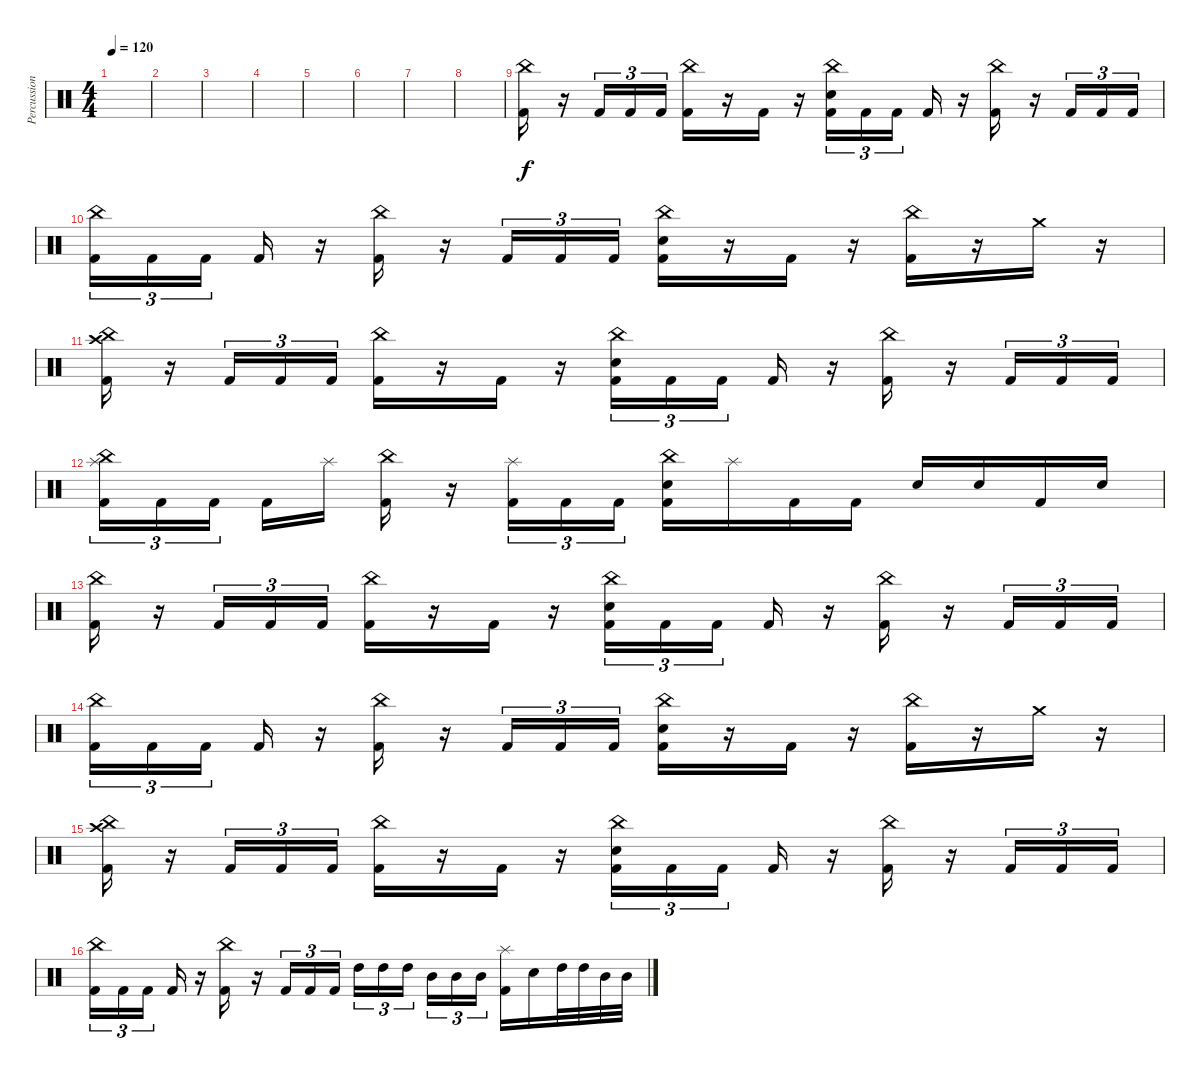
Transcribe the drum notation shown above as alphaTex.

\track ("Percussion" "Percussion") {instrument percussion}
\staff {score}
\articulation defaults
\ts (4 4)
\tempo 120
\clef neutral
\ks c
|
|
|
|
|
|
|
|
("China (hit)" "Kick (hit) 2").16 r.16 "Kick (hit) 2".16{tu (3 2)} "Kick (hit) 2".16{tu (3 2)} "Kick (hit) 2".16{tu (3 2)} ("China (hit)" "Kick (hit) 2").16 r.16 "Kick (hit) 2".16 r.16 ("China (hit)" "Electric Snare (hit)" "Kick (hit) 2").16{tu (3 2)} "Kick (hit) 2".16{tu (3 2)} "Kick (hit) 2".16{tu (3 2) beam splitsecondary} "Kick (hit) 2".16 r.16 ("China (hit)" "Kick (hit) 2").16 r.16 "Kick (hit) 2".16{tu (3 2)} "Kick (hit) 2".16{tu (3 2)} "Kick (hit) 2".16{tu (3 2)} |
("China (hit)" "Kick (hit) 2").16{tu (3 2)} "Kick (hit) 2".16{tu (3 2)} "Kick (hit) 2".16{tu (3 2) beam splitsecondary} "Kick (hit) 2".16 r.16 ("China (hit)" "Kick (hit) 2").16 r.16 "Kick (hit) 2".16{tu (3 2)} "Kick (hit) 2".16{tu (3 2)} "Kick (hit) 2".16{tu (3 2)} ("China (hit)" "Electric Snare (hit)" "Kick (hit) 2").16 r.16 "Kick (hit) 2".16 r.16 ("China (hit)" "Kick (hit) 2").16 r.16 "Crash medium (hit)".16 r.16 |
("Crash high (hit)" "China (hit)" "Kick (hit) 2").16 r.16 "Kick (hit) 2".16{tu (3 2)} "Kick (hit) 2".16{tu (3 2)} "Kick (hit) 2".16{tu (3 2)} ("China (hit)" "Kick (hit) 2").16 r.16 "Kick (hit) 2".16 r.16 ("China (hit)" "Electric Snare (hit)" "Kick (hit) 2").16{tu (3 2)} "Kick (hit) 2".16{tu (3 2)} "Kick (hit) 2".16{tu (3 2) beam splitsecondary} "Kick (hit) 2".16 r.16 ("China (hit)" "Kick (hit) 2").16 r.16 "Kick (hit) 2".16{tu (3 2)} "Kick (hit) 2".16{tu (3 2)} "Kick (hit) 2".16{tu (3 2)} |
("Splash (hit)" "China (hit)" "Kick (hit) 2").16{tu (3 2)} "Kick (hit) 2".16{tu (3 2)} "Kick (hit) 2".16{tu (3 2) beam splitsecondary} "Kick (hit) 2".16 "Splash (hit)".16 ("China (hit)" "Kick (hit) 2").16 r.16 ("Splash (hit)" "Kick (hit) 2").16{tu (3 2)} "Kick (hit) 2".16{tu (3 2)} "Kick (hit) 2".16{tu (3 2)} ("China (hit)" "Electric Snare (hit)" "Kick (hit) 2").16 "Splash (hit)".16 "Kick (hit) 2".16 "Kick (hit) 2".16 "Electric Snare (hit)".16 "Electric Snare (hit)".16 "Kick (hit) 2".16 "Electric Snare (hit)".16 |
("China (hit)" "Kick (hit) 2").16 r.16 "Kick (hit) 2".16{tu (3 2)} "Kick (hit) 2".16{tu (3 2)} "Kick (hit) 2".16{tu (3 2)} ("China (hit)" "Kick (hit) 2").16 r.16 "Kick (hit) 2".16 r.16 ("China (hit)" "Electric Snare (hit)" "Kick (hit) 2").16{tu (3 2)} "Kick (hit) 2".16{tu (3 2)} "Kick (hit) 2".16{tu (3 2) beam splitsecondary} "Kick (hit) 2".16 r.16 ("China (hit)" "Kick (hit) 2").16 r.16 "Kick (hit) 2".16{tu (3 2)} "Kick (hit) 2".16{tu (3 2)} "Kick (hit) 2".16{tu (3 2)} |
("China (hit)" "Kick (hit) 2").16{tu (3 2)} "Kick (hit) 2".16{tu (3 2)} "Kick (hit) 2".16{tu (3 2) beam splitsecondary} "Kick (hit) 2".16 r.16 ("China (hit)" "Kick (hit) 2").16 r.16 "Kick (hit) 2".16{tu (3 2)} "Kick (hit) 2".16{tu (3 2)} "Kick (hit) 2".16{tu (3 2)} ("China (hit)" "Electric Snare (hit)" "Kick (hit) 2").16 r.16 "Kick (hit) 2".16 r.16 ("China (hit)" "Kick (hit) 2").16 r.16 "Crash medium (hit)".16 r.16 |
("Crash high (hit)" "China (hit)" "Kick (hit) 2").16 r.16 "Kick (hit) 2".16{tu (3 2)} "Kick (hit) 2".16{tu (3 2)} "Kick (hit) 2".16{tu (3 2)} ("China (hit)" "Kick (hit) 2").16 r.16 "Kick (hit) 2".16 r.16 ("China (hit)" "Electric Snare (hit)" "Kick (hit) 2").16{tu (3 2)} "Kick (hit) 2".16{tu (3 2)} "Kick (hit) 2".16{tu (3 2) beam splitsecondary} "Kick (hit) 2".16 r.16 ("China (hit)" "Kick (hit) 2").16 r.16 "Kick (hit) 2".16{tu (3 2)} "Kick (hit) 2".16{tu (3 2)} "Kick (hit) 2".16{tu (3 2)} |
("China (hit)" "Kick (hit) 2").16{tu (3 2)} "Kick (hit) 2".16{tu (3 2)} "Kick (hit) 2".16{tu (3 2) beam splitsecondary} "Kick (hit) 2".16 r.16 ("China (hit)" "Kick (hit) 2").16 r.16 "Kick (hit) 2".16{tu (3 2)} "Kick (hit) 2".16{tu (3 2)} "Kick (hit) 2".16{tu (3 2)} "High Tom (hit)".16{tu (3 2)} "High Tom (hit)".16{tu (3 2)} "High Tom (hit)".16{tu (3 2) beam splitsecondary} "Mid Tom (hit)".16{tu (3 2)} "Mid Tom (hit)".16{tu (3 2)} "Mid Tom (hit)".16{tu (3 2)} ("Splash (hit)" "Kick (hit) 2").16 "Electric Snare (hit)".16 "High Tom (hit)".32 "High Tom (hit)".32 "Mid Tom (hit)".32 "Mid Tom (hit)".32
